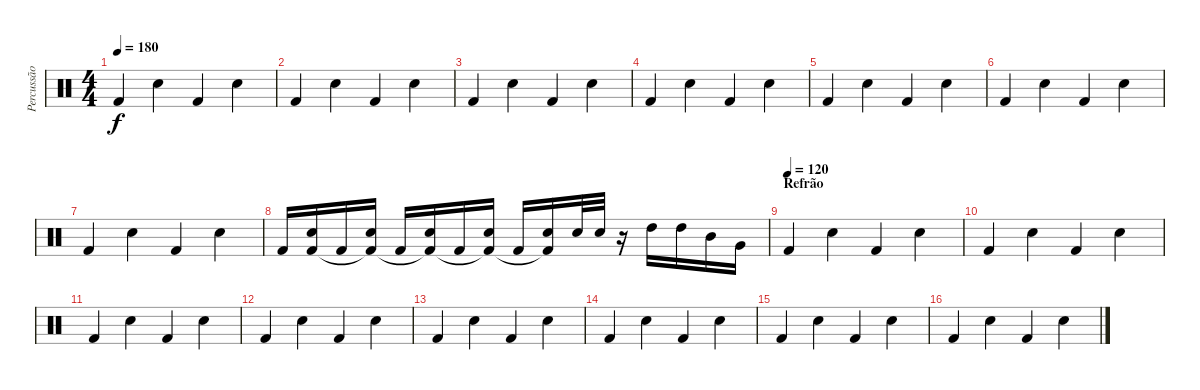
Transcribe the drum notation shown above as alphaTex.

\track ("Percussão" "Percussão") {instrument percussion}
\staff {score}
\articulation defaults
\ts (4 4)
\tempo 180
\clef neutral
\ks c "Kick (hit) 2".4{dy f} "Snare (hit) 2".4 "Kick (hit) 2".4 "Snare (hit) 2".4
|
"Kick (hit) 2".4 "Snare (hit) 2".4 "Kick (hit) 2".4 "Snare (hit) 2".4 |
"Kick (hit) 2".4 "Snare (hit) 2".4 "Kick (hit) 2".4 "Snare (hit) 2".4 |
"Kick (hit) 2".4 "Snare (hit) 2".4 "Kick (hit) 2".4 "Snare (hit) 2".4 |
"Kick (hit) 2".4 "Snare (hit) 2".4 "Kick (hit) 2".4 "Snare (hit) 2".4 |
"Kick (hit) 2".4 "Snare (hit) 2".4 "Kick (hit) 2".4 "Snare (hit) 2".4 |
"Kick (hit) 2".4 "Snare (hit) 2".4 "Kick (hit) 2".4 "Snare (hit) 2".4 |
"Kick (hit) 2".16 ("Snare (hit) 2" "Kick (hit) 2").16 "Kick (hit) 2".16 ("Snare (hit) 2" "Kick (hit) 2"{t}).16 "Kick (hit) 2".16 ("Snare (hit) 2" "Kick (hit) 2"{t}).16 "Kick (hit) 2".16 ("Snare (hit) 2" "Kick (hit) 2"{t}).16 "Kick (hit) 2".16 ("Snare (hit) 2" "Kick (hit) 2"{t}).16 "Snare (hit) 2".32 "Snare (hit) 2".32 r.16 "High Tom (hit)".16 "High Tom (hit)".16 "Mid Tom (hit)".16 "Very Low Tom (hit)".16 |
\section ("" "Refrão")
\tempo (120)
"Kick (hit) 2".4 "Snare (hit) 2".4 "Kick (hit) 2".4 "Snare (hit) 2".4 |
"Kick (hit) 2".4 "Snare (hit) 2".4 "Kick (hit) 2".4 "Snare (hit) 2".4 |
"Kick (hit) 2".4 "Snare (hit) 2".4 "Kick (hit) 2".4 "Snare (hit) 2".4 |
"Kick (hit) 2".4 "Snare (hit) 2".4 "Kick (hit) 2".4 "Snare (hit) 2".4 |
"Kick (hit) 2".4 "Snare (hit) 2".4 "Kick (hit) 2".4 "Snare (hit) 2".4 |
"Kick (hit) 2".4 "Snare (hit) 2".4 "Kick (hit) 2".4 "Snare (hit) 2".4 |
"Kick (hit) 2".4 "Snare (hit) 2".4 "Kick (hit) 2".4 "Snare (hit) 2".4 |
"Kick (hit) 2".4 "Snare (hit) 2".4 "Kick (hit) 2".4 "Snare (hit) 2".4
